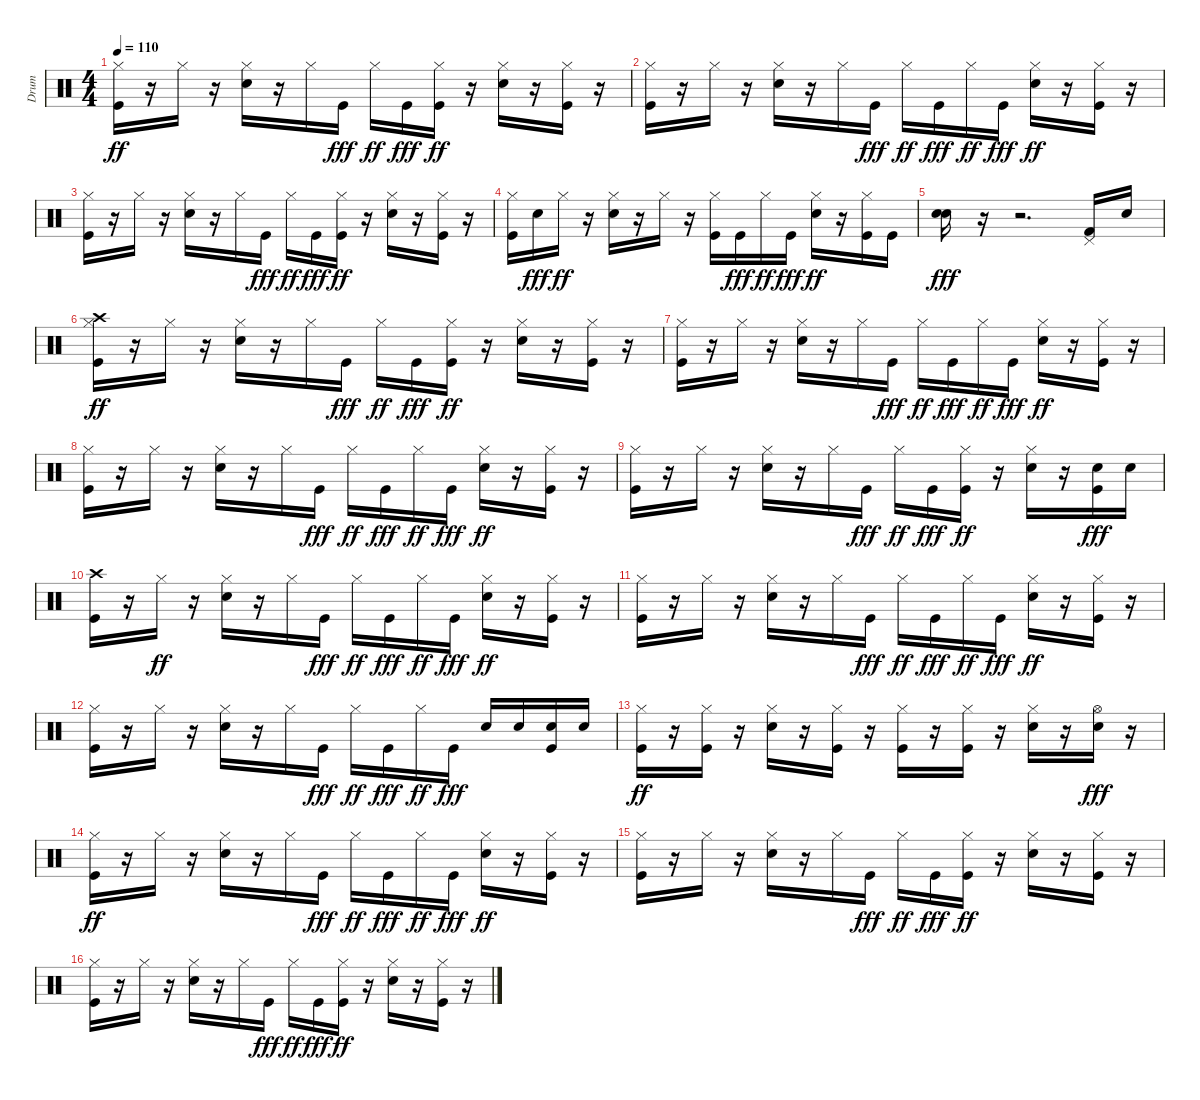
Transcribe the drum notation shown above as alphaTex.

\track ("Drum" "Drum") {instrument percussion}
\staff {score}
\articulation defaults
\ts (4 4)
\tempo 110
\clef neutral
\ks c
("Kick (hit)" "Hi-Hat (closed)").16{dy ff} r.16 "Hi-Hat (closed)".16 r.16 ("Electric Snare (hit)" "Hi-Hat (closed)").16 r.16 "Hi-Hat (closed)".16 "Kick (hit)".16{dy fff} "Hi-Hat (closed)".16{dy ff} "Kick (hit)".16{dy fff} ("Kick (hit)" "Hi-Hat (closed)").16{dy ff} r.16 ("Electric Snare (hit)" "Hi-Hat (closed)").16 r.16 ("Kick (hit)" "Hi-Hat (closed)").16 r.16 |
("Kick (hit)" "Hi-Hat (closed)").16 r.16 "Hi-Hat (closed)".16 r.16 ("Electric Snare (hit)" "Hi-Hat (closed)").16 r.16 "Hi-Hat (closed)".16 "Kick (hit)".16{dy fff} "Hi-Hat (closed)".16{dy ff} "Kick (hit)".16{dy fff} "Hi-Hat (closed)".16{dy ff} "Kick (hit)".16{dy fff} ("Electric Snare (hit)" "Hi-Hat (closed)").16{dy ff} r.16 ("Kick (hit)" "Hi-Hat (closed)").16 r.16 |
("Kick (hit)" "Hi-Hat (closed)").16 r.16 "Hi-Hat (closed)".16 r.16 ("Electric Snare (hit)" "Hi-Hat (closed)").16 r.16 "Hi-Hat (closed)".16 "Kick (hit)".16{dy fff} "Hi-Hat (closed)".16{dy ff} "Kick (hit)".16{dy fff} ("Kick (hit)" "Hi-Hat (closed)").16{dy ff} r.16 ("Electric Snare (hit)" "Hi-Hat (closed)").16 r.16 ("Kick (hit)" "Hi-Hat (closed)").16 r.16 |
("Kick (hit)" "Hi-Hat (closed)").16 "Electric Snare (hit)".16{dy fff} "Hi-Hat (closed)".16{dy ff} r.16 ("Electric Snare (hit)" "Hi-Hat (closed)").16 r.16 "Hi-Hat (closed)".16 r.16 ("Kick (hit)" "Hi-Hat (closed)").16 "Kick (hit)".16{dy fff} "Hi-Hat (closed)".16{dy ff} "Kick (hit)".16{dy fff} ("Electric Snare (hit)" "Hi-Hat (closed)").16{dy ff} r.16 ("Kick (hit)" "Hi-Hat (closed)").16 "Kick (hit)".16 |
("Metronome (bell)" "Electric Snare (hit)").16{dy fff} r.16 r.2{d} ("Pedal Hi-Hat (hit)" "Kick (hit) 2").16 "Metronome (bell)".16 |
("Crash high (hit)" "Kick (hit)" "Hi-Hat (closed)").16{dy ff} r.16 "Hi-Hat (closed)".16 r.16 ("Electric Snare (hit)" "Hi-Hat (closed)").16 r.16 "Hi-Hat (closed)".16 "Kick (hit)".16{dy fff} "Hi-Hat (closed)".16{dy ff} "Kick (hit)".16{dy fff} ("Kick (hit)" "Hi-Hat (closed)").16{dy ff} r.16 ("Electric Snare (hit)" "Hi-Hat (closed)").16 r.16 ("Kick (hit)" "Hi-Hat (closed)").16 r.16 |
("Kick (hit)" "Hi-Hat (closed)").16 r.16 "Hi-Hat (closed)".16 r.16 ("Electric Snare (hit)" "Hi-Hat (closed)").16 r.16 "Hi-Hat (closed)".16 "Kick (hit)".16{dy fff} "Hi-Hat (closed)".16{dy ff} "Kick (hit)".16{dy fff} "Hi-Hat (closed)".16{dy ff} "Kick (hit)".16{dy fff} ("Electric Snare (hit)" "Hi-Hat (closed)").16{dy ff} r.16 ("Kick (hit)" "Hi-Hat (closed)").16 r.16 |
("Kick (hit)" "Hi-Hat (closed)").16 r.16 "Hi-Hat (closed)".16 r.16 ("Electric Snare (hit)" "Hi-Hat (closed)").16 r.16 "Hi-Hat (closed)".16 "Kick (hit)".16{dy fff} "Hi-Hat (closed)".16{dy ff} "Kick (hit)".16{dy fff} "Hi-Hat (closed)".16{dy ff} "Kick (hit)".16{dy fff} ("Electric Snare (hit)" "Hi-Hat (closed)").16{dy ff} r.16 ("Kick (hit)" "Hi-Hat (closed)").16 r.16 |
("Kick (hit)" "Hi-Hat (closed)").16 r.16 "Hi-Hat (closed)".16 r.16 ("Electric Snare (hit)" "Hi-Hat (closed)").16 r.16 "Hi-Hat (closed)".16 "Kick (hit)".16{dy fff} "Hi-Hat (closed)".16{dy ff} "Kick (hit)".16{dy fff} ("Kick (hit)" "Hi-Hat (closed)").16{dy ff} r.16 ("Electric Snare (hit)" "Hi-Hat (closed)").16 r.16 ("Electric Snare (hit)" "Kick (hit)").16{dy fff} "Electric Snare (hit)".16 |
("Crash high (hit)" "Kick (hit)").16 r.16 "Hi-Hat (closed)".16{dy ff} r.16 ("Electric Snare (hit)" "Hi-Hat (closed)").16 r.16 "Hi-Hat (closed)".16 "Kick (hit)".16{dy fff} "Hi-Hat (closed)".16{dy ff} "Kick (hit)".16{dy fff} "Hi-Hat (closed)".16{dy ff} "Kick (hit)".16{dy fff} ("Electric Snare (hit)" "Hi-Hat (closed)").16{dy ff} r.16 ("Kick (hit)" "Hi-Hat (closed)").16 r.16 |
("Kick (hit)" "Hi-Hat (closed)").16 r.16 "Hi-Hat (closed)".16 r.16 ("Electric Snare (hit)" "Hi-Hat (closed)").16 r.16 "Hi-Hat (closed)".16 "Kick (hit)".16{dy fff} "Hi-Hat (closed)".16{dy ff} "Kick (hit)".16{dy fff} "Hi-Hat (closed)".16{dy ff} "Kick (hit)".16{dy fff} ("Electric Snare (hit)" "Hi-Hat (closed)").16{dy ff} r.16 ("Kick (hit)" "Hi-Hat (closed)").16 r.16 |
("Kick (hit)" "Hi-Hat (closed)").16 r.16 "Hi-Hat (closed)".16 r.16 ("Electric Snare (hit)" "Hi-Hat (closed)").16 r.16 "Hi-Hat (closed)".16 "Kick (hit)".16{dy fff} "Hi-Hat (closed)".16{dy ff} "Kick (hit)".16{dy fff} "Hi-Hat (closed)".16{dy ff} "Kick (hit)".16{dy fff} "Electric Snare (hit)".16 "Electric Snare (hit)".16 ("Electric Snare (hit)" "Kick (hit)").16 "Electric Snare (hit)".16 |
("Kick (hit)" "Hi-Hat (closed)").16{dy ff} r.16 ("Kick (hit)" "Hi-Hat (closed)").16 r.16 ("Electric Snare (hit)" "Hi-Hat (closed)").16 r.16 ("Kick (hit)" "Hi-Hat (closed)").16 r.16 ("Kick (hit)" "Hi-Hat (closed)").16 r.16 ("Kick (hit)" "Hi-Hat (closed)").16 r.16 ("Electric Snare (hit)" "Hi-Hat (closed)").16 r.16 ("Hi-Hat (open)" "Electric Snare (hit)").16{dy fff} r.16 |
("Kick (hit)" "Hi-Hat (closed)").16{dy ff} r.16 "Hi-Hat (closed)".16 r.16 ("Electric Snare (hit)" "Hi-Hat (closed)").16 r.16 "Hi-Hat (closed)".16 "Kick (hit)".16{dy fff} "Hi-Hat (closed)".16{dy ff} "Kick (hit)".16{dy fff} "Hi-Hat (closed)".16{dy ff} "Kick (hit)".16{dy fff} ("Electric Snare (hit)" "Hi-Hat (closed)").16{dy ff} r.16 ("Kick (hit)" "Hi-Hat (closed)").16 r.16 |
("Kick (hit)" "Hi-Hat (closed)").16 r.16 "Hi-Hat (closed)".16 r.16 ("Electric Snare (hit)" "Hi-Hat (closed)").16 r.16 "Hi-Hat (closed)".16 "Kick (hit)".16{dy fff} "Hi-Hat (closed)".16{dy ff} "Kick (hit)".16{dy fff} ("Kick (hit)" "Hi-Hat (closed)").16{dy ff} r.16 ("Electric Snare (hit)" "Hi-Hat (closed)").16 r.16 ("Kick (hit)" "Hi-Hat (closed)").16 r.16 |
("Kick (hit)" "Hi-Hat (closed)").16 r.16 "Hi-Hat (closed)".16 r.16 ("Electric Snare (hit)" "Hi-Hat (closed)").16 r.16 "Hi-Hat (closed)".16 "Kick (hit)".16{dy fff} "Hi-Hat (closed)".16{dy ff} "Kick (hit)".16{dy fff} ("Kick (hit)" "Hi-Hat (closed)").16{dy ff} r.16 ("Electric Snare (hit)" "Hi-Hat (closed)").16 r.16 ("Kick (hit)" "Hi-Hat (closed)").16 r.16
